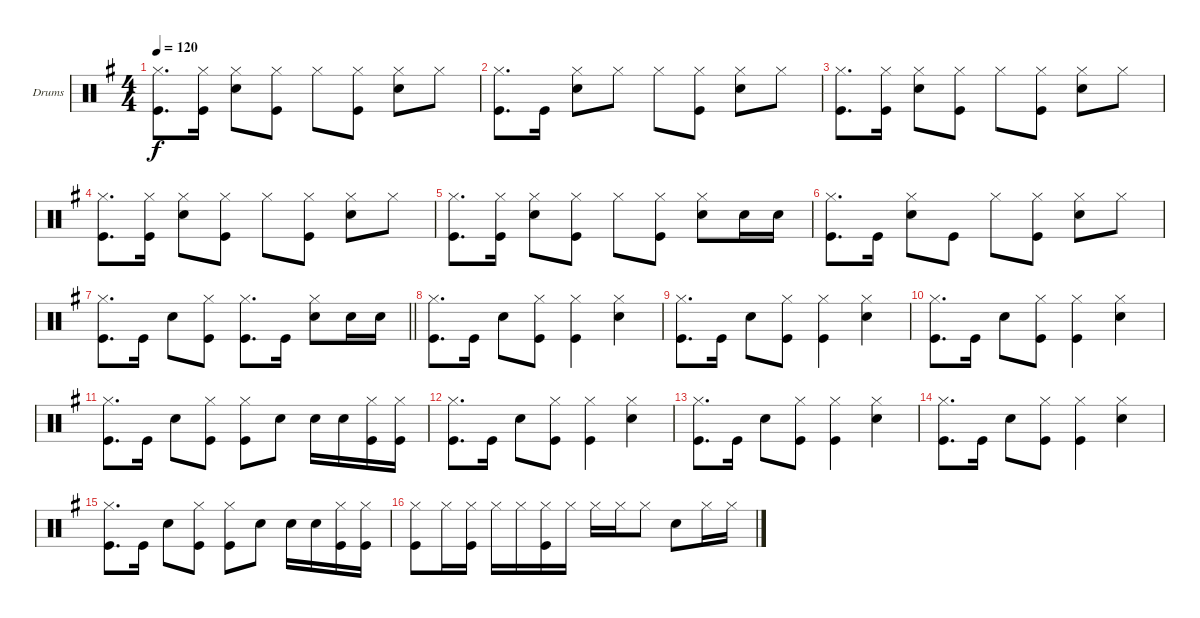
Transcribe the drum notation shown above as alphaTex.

\bracketExtendMode groupsimilarinstruments
\firstSystemTrackNameOrientation horizontal
\otherSystemsTrackNameOrientation horizontal
\track ("Drumkit" "Drums") {instrument percussion}
\staff {score}
\articulation defaults
\ts (4 4)
\tempo 120
\clef neutral
\ks eminor
("Hi-Hat (closed)" "Kick (hit)").8{d dy f} ("Hi-Hat (closed)" "Kick (hit)").16 ("Hi-Hat (closed)" "Snare (hit) 2").8 ("Hi-Hat (closed)" "Kick (hit)").8 "Hi-Hat (closed)".8 ("Hi-Hat (closed)" "Kick (hit)").8 ("Hi-Hat (closed)" "Snare (hit) 2").8 "Hi-Hat (closed)".8 |
("Hi-Hat (closed)" "Kick (hit)").8{d} "Kick (hit)".16 ("Hi-Hat (closed)" "Snare (hit) 2").8 "Hi-Hat (closed)".8 "Hi-Hat (closed)".8 ("Hi-Hat (closed)" "Kick (hit)").8 ("Hi-Hat (closed)" "Snare (hit) 2").8 "Hi-Hat (closed)".8 |
("Hi-Hat (closed)" "Kick (hit)").8{d} ("Hi-Hat (closed)" "Kick (hit)").16 ("Hi-Hat (closed)" "Snare (hit) 2").8 ("Hi-Hat (closed)" "Kick (hit)").8 "Hi-Hat (closed)".8 ("Hi-Hat (closed)" "Kick (hit)").8 ("Hi-Hat (closed)" "Snare (hit) 2").8 "Hi-Hat (closed)".8 |
("Hi-Hat (closed)" "Kick (hit)").8{d} ("Hi-Hat (closed)" "Kick (hit)").16 ("Hi-Hat (closed)" "Snare (hit) 2").8 ("Hi-Hat (closed)" "Kick (hit)").8 "Hi-Hat (closed)".8 ("Hi-Hat (closed)" "Kick (hit)").8 ("Hi-Hat (closed)" "Snare (hit) 2").8 "Hi-Hat (closed)".8 |
("Hi-Hat (closed)" "Kick (hit)").8{d} ("Hi-Hat (closed)" "Kick (hit)").16 ("Hi-Hat (closed)" "Snare (hit) 2").8 ("Hi-Hat (closed)" "Kick (hit)").8 "Hi-Hat (closed)".8 ("Hi-Hat (closed)" "Kick (hit)").8 ("Hi-Hat (closed)" "Snare (hit) 2").8 "Snare (hit) 2".16 "Snare (hit) 2".16 |
("Hi-Hat (closed)" "Kick (hit)").8{d} "Kick (hit)".16 ("Hi-Hat (closed)" "Snare (hit) 2").8 "Kick (hit)".8 "Hi-Hat (closed)".8 ("Hi-Hat (closed)" "Kick (hit)").8 ("Hi-Hat (closed)" "Snare (hit) 2").8 "Hi-Hat (closed)".8 |
\barLineRight lightlight
("Hi-Hat (closed)" "Kick (hit)").8{d} "Kick (hit)".16 "Snare (hit) 2".8 ("Hi-Hat (closed)" "Kick (hit)").8 ("Hi-Hat (closed)" "Kick (hit)").8{d} "Kick (hit)".16 ("Hi-Hat (closed)" "Snare (hit) 2").8 "Snare (hit) 2".16 "Snare (hit) 2".16 |
("Hi-Hat (closed)" "Kick (hit)").8{d} "Kick (hit)".16 "Snare (hit) 2".8 ("Hi-Hat (closed)" "Kick (hit)").8 ("Hi-Hat (closed)" "Kick (hit)").4 ("Hi-Hat (closed)" "Snare (hit) 2").4 |
("Hi-Hat (closed)" "Kick (hit)").8{d} "Kick (hit)".16 "Snare (hit) 2".8 ("Hi-Hat (closed)" "Kick (hit)").8 ("Hi-Hat (closed)" "Kick (hit)").4 ("Hi-Hat (closed)" "Snare (hit) 2").4 |
("Hi-Hat (closed)" "Kick (hit)").8{d} "Kick (hit)".16 "Snare (hit) 2".8 ("Hi-Hat (closed)" "Kick (hit)").8 ("Hi-Hat (closed)" "Kick (hit)").4 ("Hi-Hat (closed)" "Snare (hit) 2").4 |
("Hi-Hat (closed)" "Kick (hit)").8{d} "Kick (hit)".16 "Snare (hit) 2".8 ("Hi-Hat (closed)" "Kick (hit)").8 ("Hi-Hat (closed)" "Kick (hit)").8 "Snare (hit) 2".8 "Snare (hit) 2".16 "Snare (hit) 2".16 ("Hi-Hat (closed)" "Kick (hit)").16 ("Hi-Hat (closed)" "Kick (hit)").16 |
("Hi-Hat (closed)" "Kick (hit)").8{d} "Kick (hit)".16 "Snare (hit) 2".8 ("Hi-Hat (closed)" "Kick (hit)").8 ("Hi-Hat (closed)" "Kick (hit)").4 ("Hi-Hat (closed)" "Snare (hit) 2").4 |
("Hi-Hat (closed)" "Kick (hit)").8{d} "Kick (hit)".16 "Snare (hit) 2".8 ("Hi-Hat (closed)" "Kick (hit)").8 ("Hi-Hat (closed)" "Kick (hit)").4 ("Hi-Hat (closed)" "Snare (hit) 2").4 |
("Hi-Hat (closed)" "Kick (hit)").8{d} "Kick (hit)".16 "Snare (hit) 2".8 ("Hi-Hat (closed)" "Kick (hit)").8 ("Hi-Hat (closed)" "Kick (hit)").4 ("Hi-Hat (closed)" "Snare (hit) 2").4 |
("Hi-Hat (closed)" "Kick (hit)").8{d} "Kick (hit)".16 "Snare (hit) 2".8 ("Hi-Hat (closed)" "Kick (hit)").8 ("Hi-Hat (closed)" "Kick (hit)").8 "Snare (hit) 2".8 "Snare (hit) 2".16 "Snare (hit) 2".16 ("Hi-Hat (closed)" "Kick (hit)").16 ("Hi-Hat (closed)" "Kick (hit)").16 |
("Hi-Hat (closed)" "Kick (hit)").8 "Hi-Hat (closed)".16 ("Hi-Hat (closed)" "Kick (hit)").16 "Hi-Hat (closed)".16 "Hi-Hat (closed)".16 ("Hi-Hat (closed)" "Kick (hit)").16 "Hi-Hat (closed)".16 "Hi-Hat (closed)".16 "Hi-Hat (closed)".16 "Hi-Hat (closed)".8 "Snare (hit) 2".8 "Hi-Hat (closed)".16 "Hi-Hat (closed)".16
